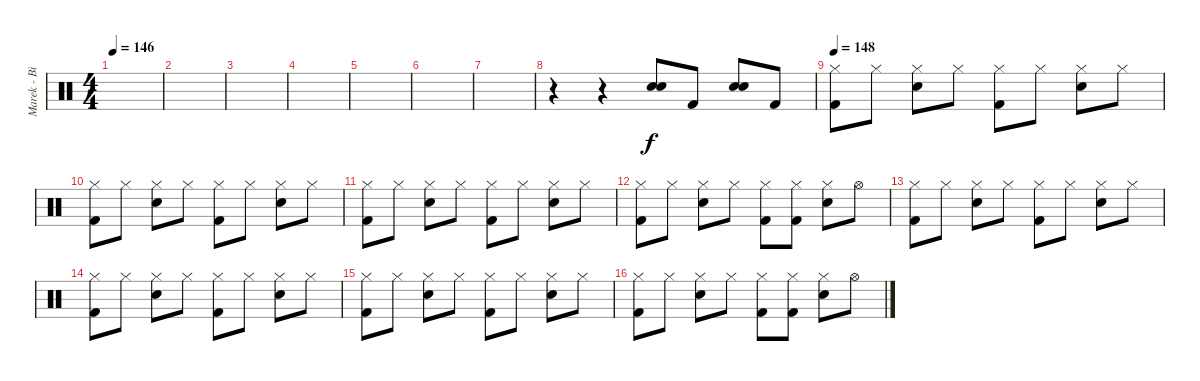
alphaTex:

\track ("Marek - Bicie" "Marek - Bi") {instrument percussion}
\staff {score}
\articulation defaults
\ts (4 4)
\tempo 146
\clef neutral
\ks c
|
|
|
|
|
|
|
r.4 r.4 ("Electric Snare (hit)" "Electric Snare (hit)").8 "Kick (hit) 2".8 ("Electric Snare (hit)" "Electric Snare (hit)").8 "Kick (hit) 2".8 |
\tempo 148
("Hi-Hat (closed)" "Kick (hit) 2").8 "Hi-Hat (closed)".8 ("Hi-Hat (closed)" "Electric Snare (hit)").8 "Hi-Hat (closed)".8 ("Hi-Hat (closed)" "Kick (hit) 2").8 "Hi-Hat (closed)".8 ("Hi-Hat (closed)" "Electric Snare (hit)").8 "Hi-Hat (closed)".8 |
("Hi-Hat (closed)" "Kick (hit) 2").8 "Hi-Hat (closed)".8 ("Hi-Hat (closed)" "Electric Snare (hit)").8 "Hi-Hat (closed)".8 ("Hi-Hat (closed)" "Kick (hit) 2").8 "Hi-Hat (closed)".8 ("Hi-Hat (closed)" "Electric Snare (hit)").8 "Hi-Hat (closed)".8 |
("Hi-Hat (closed)" "Kick (hit) 2").8 "Hi-Hat (closed)".8 ("Hi-Hat (closed)" "Electric Snare (hit)").8 "Hi-Hat (closed)".8 ("Hi-Hat (closed)" "Kick (hit) 2").8 "Hi-Hat (closed)".8 ("Hi-Hat (closed)" "Electric Snare (hit)").8 "Hi-Hat (closed)".8 |
("Hi-Hat (closed)" "Kick (hit) 2").8 "Hi-Hat (closed)".8 ("Hi-Hat (closed)" "Electric Snare (hit)").8 "Hi-Hat (closed)".8 ("Hi-Hat (closed)" "Kick (hit) 2").8 ("Hi-Hat (closed)" "Kick (hit) 2").8 ("Hi-Hat (closed)" "Electric Snare (hit)").8 "Hi-Hat (open)".8 |
("Hi-Hat (closed)" "Kick (hit) 2").8 "Hi-Hat (closed)".8 ("Hi-Hat (closed)" "Electric Snare (hit)").8 "Hi-Hat (closed)".8 ("Hi-Hat (closed)" "Kick (hit) 2").8 "Hi-Hat (closed)".8 ("Hi-Hat (closed)" "Electric Snare (hit)").8 "Hi-Hat (closed)".8 |
("Hi-Hat (closed)" "Kick (hit) 2").8 "Hi-Hat (closed)".8 ("Hi-Hat (closed)" "Electric Snare (hit)").8 "Hi-Hat (closed)".8 ("Hi-Hat (closed)" "Kick (hit) 2").8 "Hi-Hat (closed)".8 ("Hi-Hat (closed)" "Electric Snare (hit)").8 "Hi-Hat (closed)".8 |
("Hi-Hat (closed)" "Kick (hit) 2").8 "Hi-Hat (closed)".8 ("Hi-Hat (closed)" "Electric Snare (hit)").8 "Hi-Hat (closed)".8 ("Hi-Hat (closed)" "Kick (hit) 2").8 "Hi-Hat (closed)".8 ("Hi-Hat (closed)" "Electric Snare (hit)").8 "Hi-Hat (closed)".8 |
("Hi-Hat (closed)" "Kick (hit) 2").8 "Hi-Hat (closed)".8 ("Hi-Hat (closed)" "Electric Snare (hit)").8 "Hi-Hat (closed)".8 ("Hi-Hat (closed)" "Kick (hit) 2").8 ("Hi-Hat (closed)" "Kick (hit) 2").8 ("Hi-Hat (closed)" "Electric Snare (hit)").8 "Hi-Hat (open)".8
